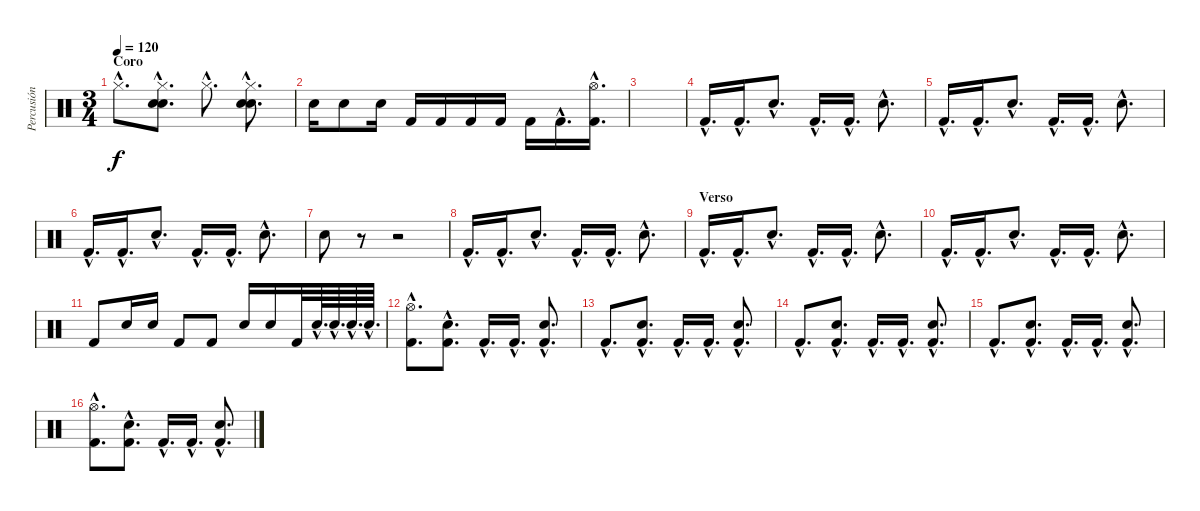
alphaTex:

\track ("Percusión" "Percusión") {instrument percussion}
\staff {score}
\articulation defaults
\ts (3 4)
\section ("" "Coro")
\tempo 120
\clef neutral
\ks c "Hi-Hat (closed)"{hac}.8{d dy f}
("Electric Snare (hit)"{hac} "Snare (hit) 2"{hac} "Hi-Hat (closed)"{hac}).8{d} "Hi-Hat (closed)"{hac}.8{d} ("Electric Snare (hit)"{hac} "Snare (hit) 2"{hac} "Hi-Hat (closed)"{hac}).8{d} |
"Electric Snare (hit)".16 "Electric Snare (hit)".8 "Electric Snare (hit)".16 "Kick (hit) 2".16 "Kick (hit) 2".16 "Kick (hit) 2".16 "Kick (hit) 2".16 "Kick (hit) 2".16 "Kick (hit) 2"{hac}.16{d} ("Kick (hit) 2"{hac} "Hi-Hat (open)"{hac}).16{d} |
|
"Kick (hit) 2"{hac}.16{d} "Kick (hit) 2"{hac}.16{d} "Electric Snare (hit)"{hac}.8{d} "Kick (hit) 2"{hac}.16{d} "Kick (hit) 2"{hac}.16{d} "Electric Snare (hit)"{hac}.8{d} |
"Kick (hit) 2"{hac}.16{d} "Kick (hit) 2"{hac}.16{d} "Electric Snare (hit)"{hac}.8{d} "Kick (hit) 2"{hac}.16{d} "Kick (hit) 2"{hac}.16{d} "Electric Snare (hit)"{hac}.8{d} |
"Kick (hit) 2"{hac}.16{d} "Kick (hit) 2"{hac}.16{d} "Electric Snare (hit)"{hac}.8{d} "Kick (hit) 2"{hac}.16{d} "Kick (hit) 2"{hac}.16{d} "Electric Snare (hit)"{hac}.8{d} |
"Electric Snare (hit)".8 r.8 r.2 |
"Kick (hit) 2"{hac}.16{d} "Kick (hit) 2"{hac}.16{d} "Electric Snare (hit)"{hac}.8{d} "Kick (hit) 2"{hac}.16{d} "Kick (hit) 2"{hac}.16{d} "Electric Snare (hit)"{hac}.8{d} |
\section ("" "Verso")
"Kick (hit) 2"{hac}.16{d} "Kick (hit) 2"{hac}.16{d} "Electric Snare (hit)"{hac}.8{d} "Kick (hit) 2"{hac}.16{d} "Kick (hit) 2"{hac}.16{d} "Electric Snare (hit)"{hac}.8{d} |
"Kick (hit) 2"{hac}.16{d} "Kick (hit) 2"{hac}.16{d} "Electric Snare (hit)"{hac}.8{d} "Kick (hit) 2"{hac}.16{d} "Kick (hit) 2"{hac}.16{d} "Electric Snare (hit)"{hac}.8{d} |
"Kick (hit) 2".8 "Electric Snare (hit)".16 "Electric Snare (hit)".16 "Kick (hit) 2".8 "Kick (hit) 2".8 "Electric Snare (hit)".16 "Electric Snare (hit)".16 "Kick (hit) 2".32 "Electric Snare (hit)"{hac}.64{d} "Electric Snare (hit)"{hac}.64{d} "Electric Snare (hit)"{hac}.64{d} "Electric Snare (hit)"{hac}.64{d} |
("Hi-Hat (open)"{hac} "Kick (hit) 2"{hac}).8{d} ("Electric Snare (hit)"{hac} "Kick (hit) 2"{hac}).8{d} "Kick (hit) 2"{hac}.16{d} "Kick (hit) 2"{hac}.16{d} ("Electric Snare (hit)"{hac} "Kick (hit) 2"{hac}).8{d} |
"Kick (hit) 2"{hac}.8{d} ("Electric Snare (hit)"{hac} "Kick (hit) 2"{hac}).8{d} "Kick (hit) 2"{hac}.16{d} "Kick (hit) 2"{hac}.16{d} ("Electric Snare (hit)"{hac} "Kick (hit) 2"{hac}).8{d} |
"Kick (hit) 2"{hac}.8{d} ("Electric Snare (hit)"{hac} "Kick (hit) 2"{hac}).8{d} "Kick (hit) 2"{hac}.16{d} "Kick (hit) 2"{hac}.16{d} ("Electric Snare (hit)"{hac} "Kick (hit) 2"{hac}).8{d} |
"Kick (hit) 2"{hac}.8{d} ("Electric Snare (hit)"{hac} "Kick (hit) 2"{hac}).8{d} "Kick (hit) 2"{hac}.16{d} "Kick (hit) 2"{hac}.16{d} ("Electric Snare (hit)"{hac} "Kick (hit) 2"{hac}).8{d} |
("Hi-Hat (open)"{hac} "Kick (hit) 2"{hac}).8{d} ("Electric Snare (hit)"{hac} "Kick (hit) 2"{hac}).8{d} "Kick (hit) 2"{hac}.16{d} "Kick (hit) 2"{hac}.16{d} ("Electric Snare (hit)"{hac} "Kick (hit) 2"{hac}).8{d}
